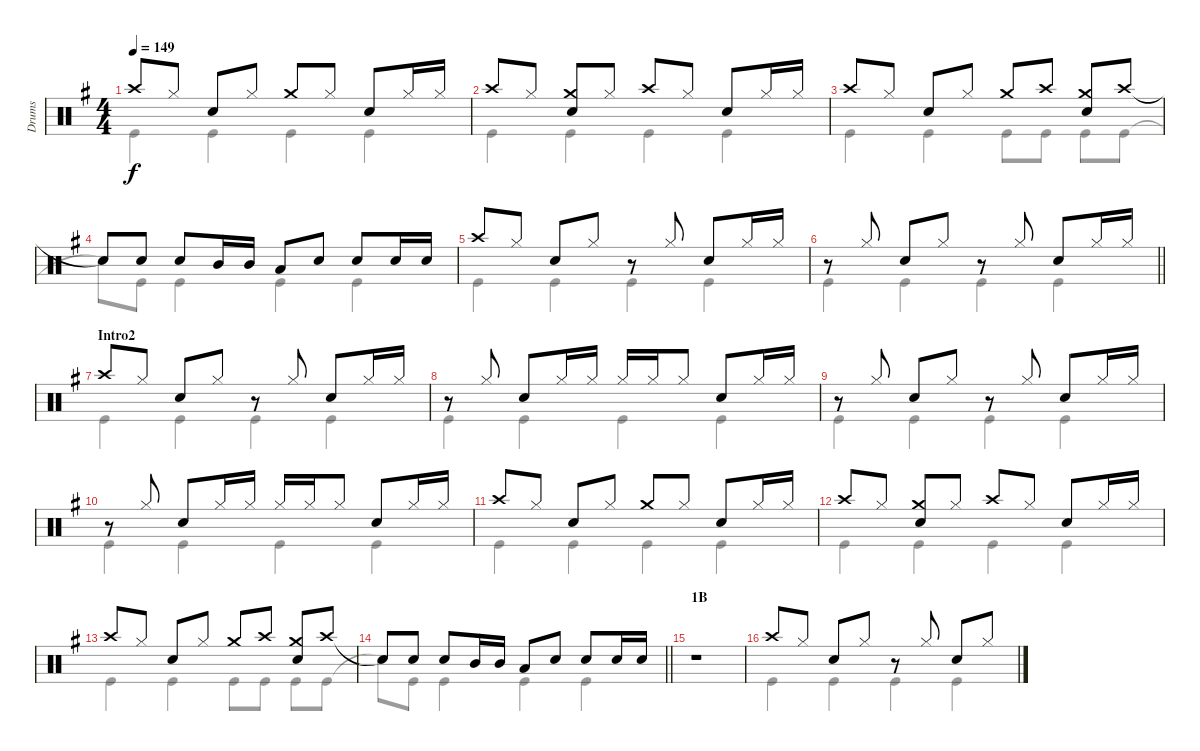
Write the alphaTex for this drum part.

\track ("Drums" "Drums") {instrument percussion}
\staff {score}
\articulation defaults
\voice
\ts (4 4)
\tempo 149
\clef neutral
\ks g "Crash high (hit)".8{dy f} "Hi-Hat (closed)".8 "Snare (hit) 2".8 "Hi-Hat (closed)".8 "Crash medium (hit)".8 "Hi-Hat (closed)".8 "Snare (hit) 2".8 "Hi-Hat (closed)".16 "Hi-Hat (closed)".16
|
"Crash high (hit)".8 "Hi-Hat (closed)".8 ("Crash medium (hit)" "Snare (hit) 2").8 "Hi-Hat (closed)".8 "Crash high (hit)".8 "Hi-Hat (closed)".8 "Snare (hit) 2".8 "Hi-Hat (closed)".16 "Hi-Hat (closed)".16 |
"Crash high (hit)".8 "Hi-Hat (closed)".8 "Snare (hit) 2".8 "Hi-Hat (closed)".8 "Crash medium (hit)".8 "Crash high (hit)".8 ("Crash medium (hit)" "Snare (hit) 2").8 "Crash high (hit)".8 |
"Snare (hit)"{t}.8 "Snare (hit) 2".8 "Snare (hit) 2".8 "Mid Tom (hit)".16 "Mid Tom (hit)".16 "Low Tom (hit)".8 "Snare (hit) 2".8 "Snare (hit) 2".8 "Snare (hit) 2".16 "Snare (hit) 2".16 |
"Crash high (hit)".8 "Hi-Hat (closed)".8 "Snare (hit) 2".8 "Hi-Hat (closed)".8 r.8 "Hi-Hat (closed)".8 "Snare (hit) 2".8 "Hi-Hat (closed)".16 "Hi-Hat (closed)".16 |
\barLineRight lightlight
r.8 "Hi-Hat (closed)".8 "Snare (hit) 2".8 "Hi-Hat (closed)".8 r.8 "Hi-Hat (closed)".8 "Snare (hit) 2".8 "Hi-Hat (closed)".16 "Hi-Hat (closed)".16 |
\section ("" "Intro2")
"Crash high (hit)".8 "Hi-Hat (closed)".8 "Snare (hit) 2".8 "Hi-Hat (closed)".8 r.8 "Hi-Hat (closed)".8 "Snare (hit) 2".8 "Hi-Hat (closed)".16 "Hi-Hat (closed)".16 |
r.8 "Hi-Hat (closed)".8 "Snare (hit) 2".8 "Hi-Hat (closed)".16 "Hi-Hat (closed)".16 "Hi-Hat (closed)".16 "Hi-Hat (closed)".16 "Hi-Hat (closed)".8 "Snare (hit) 2".8 "Hi-Hat (closed)".16 "Hi-Hat (closed)".16 |
r.8 "Hi-Hat (closed)".8 "Snare (hit) 2".8 "Hi-Hat (closed)".8 r.8 "Hi-Hat (closed)".8 "Snare (hit) 2".8 "Hi-Hat (closed)".16 "Hi-Hat (closed)".16 |
r.8 "Hi-Hat (closed)".8 "Snare (hit) 2".8 "Hi-Hat (closed)".16 "Hi-Hat (closed)".16 "Hi-Hat (closed)".16 "Hi-Hat (closed)".16 "Hi-Hat (closed)".8 "Snare (hit) 2".8 "Hi-Hat (closed)".16 "Hi-Hat (closed)".16 |
"Crash high (hit)".8 "Hi-Hat (closed)".8 "Snare (hit) 2".8 "Hi-Hat (closed)".8 "Crash medium (hit)".8 "Hi-Hat (closed)".8 "Snare (hit) 2".8 "Hi-Hat (closed)".16 "Hi-Hat (closed)".16 |
"Crash high (hit)".8 "Hi-Hat (closed)".8 ("Crash medium (hit)" "Snare (hit) 2").8 "Hi-Hat (closed)".8 "Crash high (hit)".8 "Hi-Hat (closed)".8 "Snare (hit) 2".8 "Hi-Hat (closed)".16 "Hi-Hat (closed)".16 |
"Crash high (hit)".8 "Hi-Hat (closed)".8 "Snare (hit) 2".8 "Hi-Hat (closed)".8 "Crash medium (hit)".8 "Crash high (hit)".8 ("Crash medium (hit)" "Snare (hit) 2").8 "Crash high (hit)".8 |
\barLineRight lightlight "Snare (hit)"{t}.8 "Snare (hit) 2".8 "Snare (hit) 2".8 "Mid Tom (hit)".16 "Mid Tom (hit)".16 "Low Tom (hit)".8 "Snare (hit) 2".8 "Snare (hit) 2".8 "Snare (hit) 2".16 "Snare (hit) 2".16
|
\section ("" "1B")
r.1 |
"Crash high (hit)".8 "Hi-Hat (closed)".8 "Snare (hit) 2".8 "Hi-Hat (closed)".8 r.8 "Hi-Hat (closed)".8 "Snare (hit) 2".8 "Hi-Hat (closed)".8
\voice
\clef neutral
\ottava regular
\simile none
\ks g "Kick (hit)".4{dy f} "Kick (hit)".4 "Kick (hit)".4 "Kick (hit)".4
|
"Kick (hit)".4 "Kick (hit)".4 "Kick (hit)".4 "Kick (hit)".4 |
"Kick (hit)".4 "Kick (hit)".4 "Kick (hit)".8 "Kick (hit)".8 "Kick (hit)".8 "Kick (hit)".8 |
"Snare (hit)"{t}.8 "Kick (hit)".8 "Kick (hit)".4 "Kick (hit)".4 "Kick (hit)".4 |
"Kick (hit)".4 "Kick (hit)".4 "Kick (hit)".4 "Kick (hit)".4 |
\barLineRight lightlight "Kick (hit)".4 "Kick (hit)".4 "Kick (hit)".4 "Kick (hit)".4
|
"Kick (hit)".4 "Kick (hit)".4 "Kick (hit)".4 "Kick (hit)".4 |
"Kick (hit)".4 "Kick (hit)".4 "Kick (hit)".4 "Kick (hit)".4 |
"Kick (hit)".4 "Kick (hit)".4 "Kick (hit)".4 "Kick (hit)".4 |
"Kick (hit)".4 "Kick (hit)".4 "Kick (hit)".4 "Kick (hit)".4 |
"Kick (hit)".4 "Kick (hit)".4 "Kick (hit)".4 "Kick (hit)".4 |
"Kick (hit)".4 "Kick (hit)".4 "Kick (hit)".4 "Kick (hit)".4 |
"Kick (hit)".4 "Kick (hit)".4 "Kick (hit)".8 "Kick (hit)".8 "Kick (hit)".8 "Kick (hit)".8 |
\barLineRight lightlight "Snare (hit)"{t}.8 "Kick (hit)".8 "Kick (hit)".4 "Kick (hit)".4 "Kick (hit)".4
|
|
"Kick (hit)".4 "Kick (hit)".4 "Kick (hit)".4 "Kick (hit)".4
